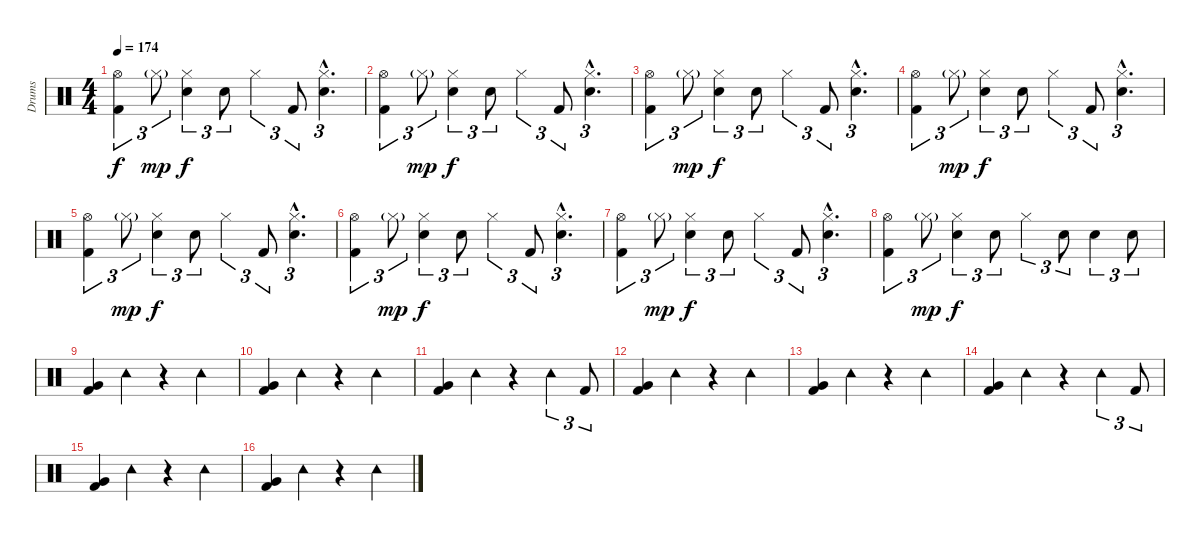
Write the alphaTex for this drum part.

\track ("Drums" "Drums") {instrument percussion}
\staff {score}
\articulation defaults
\ts (4 4)
\tempo 174
\clef neutral
\ks c
("Hi-Hat (open)" "Kick (hit) 2").4{tu (3 2) dy f} "Hi-Hat (closed)"{g}.8{tu (3 2) dy mp} ("Hi-Hat (closed)" "Electric Snare (hit)").4{tu (3 2) dy f} "Electric Snare (hit)".8{tu (3 2)} "Hi-Hat (closed)".4{tu (3 2)} "Kick (hit) 2".8{tu (3 2)} ("Hi-Hat (closed)"{hac} "Electric Snare (hit)"{hac}).4{d tu (3 2)} |
("Hi-Hat (open)" "Kick (hit) 2").4{tu (3 2)} "Hi-Hat (closed)"{g}.8{tu (3 2) dy mp} ("Hi-Hat (closed)" "Electric Snare (hit)").4{tu (3 2) dy f} "Electric Snare (hit)".8{tu (3 2)} "Hi-Hat (closed)".4{tu (3 2)} "Kick (hit) 2".8{tu (3 2)} ("Hi-Hat (closed)"{hac} "Electric Snare (hit)"{hac}).4{d tu (3 2)} |
("Hi-Hat (open)" "Kick (hit) 2").4{tu (3 2)} "Hi-Hat (closed)"{g}.8{tu (3 2) dy mp} ("Hi-Hat (closed)" "Electric Snare (hit)").4{tu (3 2) dy f} "Electric Snare (hit)".8{tu (3 2)} "Hi-Hat (closed)".4{tu (3 2)} "Kick (hit) 2".8{tu (3 2)} ("Hi-Hat (closed)"{hac} "Electric Snare (hit)"{hac}).4{d tu (3 2)} |
("Hi-Hat (open)" "Kick (hit) 2").4{tu (3 2)} "Hi-Hat (closed)"{g}.8{tu (3 2) dy mp} ("Hi-Hat (closed)" "Electric Snare (hit)").4{tu (3 2) dy f} "Electric Snare (hit)".8{tu (3 2)} "Hi-Hat (closed)".4{tu (3 2)} "Kick (hit) 2".8{tu (3 2)} ("Hi-Hat (closed)"{hac} "Electric Snare (hit)"{hac}).4{d tu (3 2)} |
("Hi-Hat (open)" "Kick (hit) 2").4{tu (3 2)} "Hi-Hat (closed)"{g}.8{tu (3 2) dy mp} ("Hi-Hat (closed)" "Electric Snare (hit)").4{tu (3 2) dy f} "Electric Snare (hit)".8{tu (3 2)} "Hi-Hat (closed)".4{tu (3 2)} "Kick (hit) 2".8{tu (3 2)} ("Hi-Hat (closed)"{hac} "Electric Snare (hit)"{hac}).4{d tu (3 2)} |
("Hi-Hat (open)" "Kick (hit) 2").4{tu (3 2)} "Hi-Hat (closed)"{g}.8{tu (3 2) dy mp} ("Hi-Hat (closed)" "Electric Snare (hit)").4{tu (3 2) dy f} "Electric Snare (hit)".8{tu (3 2)} "Hi-Hat (closed)".4{tu (3 2)} "Kick (hit) 2".8{tu (3 2)} ("Hi-Hat (closed)"{hac} "Electric Snare (hit)"{hac}).4{d tu (3 2)} |
("Hi-Hat (open)" "Kick (hit) 2").4{tu (3 2)} "Hi-Hat (closed)"{g}.8{tu (3 2) dy mp} ("Hi-Hat (closed)" "Electric Snare (hit)").4{tu (3 2) dy f} "Electric Snare (hit)".8{tu (3 2)} "Hi-Hat (closed)".4{tu (3 2)} "Kick (hit) 2".8{tu (3 2)} ("Hi-Hat (closed)"{hac} "Electric Snare (hit)"{hac}).4{d tu (3 2)} |
("Hi-Hat (open)" "Kick (hit) 2").4{tu (3 2)} "Hi-Hat (closed)"{g}.8{tu (3 2) dy mp} ("Hi-Hat (closed)" "Electric Snare (hit)").4{tu (3 2) dy f} "Electric Snare (hit)".8{tu (3 2)} "Hi-Hat (closed)".4{tu (3 2)} "Electric Snare (hit)".8{tu (3 2)} "Electric Snare (hit)".4{tu (3 2)} "Electric Snare (hit)".8{tu (3 2)} |
("Very Low Tom (hit)" "Kick (hit) 2").4 "Tambourine (hit)".4 r.4 "Tambourine (hit)".4 |
("Very Low Tom (hit)" "Kick (hit) 2").4 "Tambourine (hit)".4 r.4 "Tambourine (hit)".4 |
("Very Low Tom (hit)" "Kick (hit) 2").4 "Tambourine (hit)".4 r.4 "Tambourine (hit)".4{tu (3 2)} "Kick (hit) 2".8{tu (3 2)} |
("Very Low Tom (hit)" "Kick (hit) 2").4 "Tambourine (hit)".4 r.4 "Tambourine (hit)".4 |
("Very Low Tom (hit)" "Kick (hit) 2").4 "Tambourine (hit)".4 r.4 "Tambourine (hit)".4 |
("Very Low Tom (hit)" "Kick (hit) 2").4 "Tambourine (hit)".4 r.4 "Tambourine (hit)".4{tu (3 2)} "Kick (hit) 2".8{tu (3 2)} |
("Very Low Tom (hit)" "Kick (hit) 2").4 "Tambourine (hit)".4 r.4 "Tambourine (hit)".4 |
("Very Low Tom (hit)" "Kick (hit) 2").4 "Tambourine (hit)".4 r.4 "Tambourine (hit)".4
